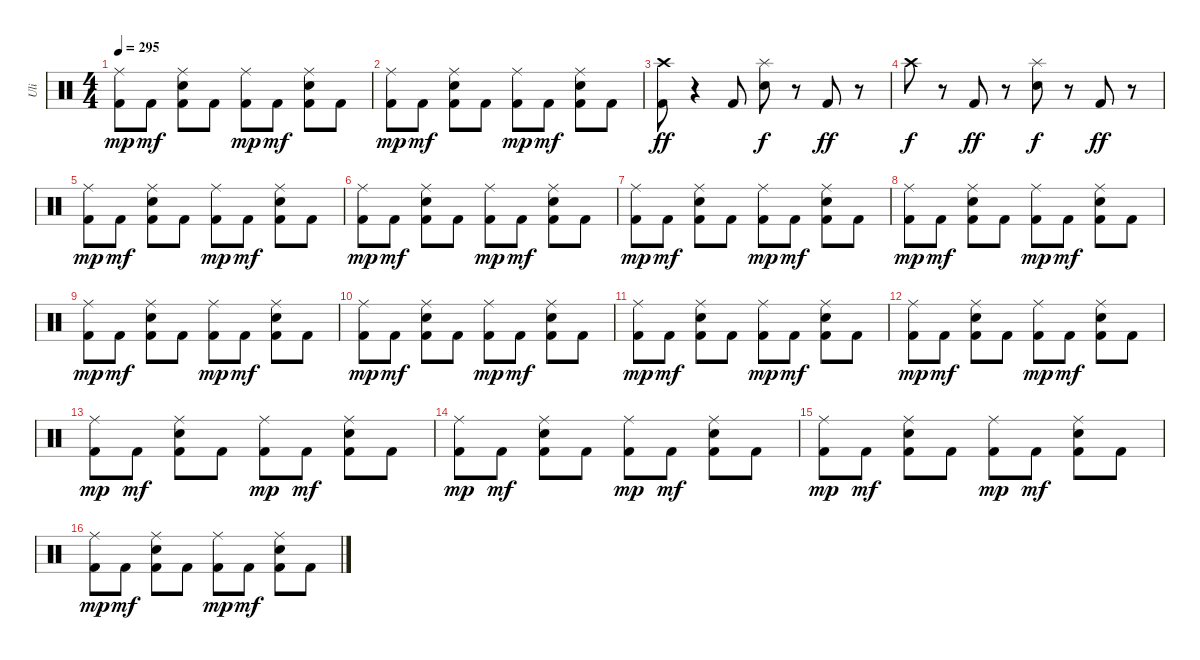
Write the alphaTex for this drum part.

\track ("Uli" "Uli") {instrument percussion}
\staff {score}
\articulation defaults
\ts (4 4)
\tempo 295
\clef neutral
\ks c
("Ride (middle)" "Kick (hit) 2").8{dy mp} "Kick (hit) 2".8{dy mf} ("Ride (middle)" "Electric Snare (hit)" "Kick (hit) 2").8 "Kick (hit) 2".8 ("Ride (middle)" "Kick (hit) 2").8{dy mp} "Kick (hit) 2".8{dy mf} ("Ride (middle)" "Electric Snare (hit)" "Kick (hit) 2").8 "Kick (hit) 2".8 |
("Ride (middle)" "Kick (hit) 2").8{dy mp} "Kick (hit) 2".8{dy mf} ("Ride (middle)" "Electric Snare (hit)" "Kick (hit) 2").8 "Kick (hit) 2".8 ("Ride (middle)" "Kick (hit) 2").8{dy mp} "Kick (hit) 2".8{dy mf} ("Ride (middle)" "Electric Snare (hit)" "Kick (hit) 2").8 "Kick (hit) 2".8 |
("Crash high (hit)" "Kick (hit) 2").8{dy ff} r.4 "Kick (hit) 2".8 ("Splash (hit)" "Electric Snare (hit)").8{dy f} r.8 "Kick (hit) 2".8{dy ff} r.8 |
"Crash high (hit)".8{dy f} r.8 "Kick (hit) 2".8{dy ff} r.8 ("Splash (hit)" "Electric Snare (hit)").8{dy f} r.8 "Kick (hit) 2".8{dy ff} r.8 |
("Ride (middle)" "Kick (hit) 2").8{dy mp} "Kick (hit) 2".8{dy mf} ("Ride (middle)" "Electric Snare (hit)" "Kick (hit) 2").8 "Kick (hit) 2".8 ("Ride (middle)" "Kick (hit) 2").8{dy mp} "Kick (hit) 2".8{dy mf} ("Ride (middle)" "Electric Snare (hit)" "Kick (hit) 2").8 "Kick (hit) 2".8 |
("Ride (middle)" "Kick (hit) 2").8{dy mp} "Kick (hit) 2".8{dy mf} ("Ride (middle)" "Electric Snare (hit)" "Kick (hit) 2").8 "Kick (hit) 2".8 ("Ride (middle)" "Kick (hit) 2").8{dy mp} "Kick (hit) 2".8{dy mf} ("Ride (middle)" "Electric Snare (hit)" "Kick (hit) 2").8 "Kick (hit) 2".8 |
("Ride (middle)" "Kick (hit) 2").8{dy mp} "Kick (hit) 2".8{dy mf} ("Ride (middle)" "Electric Snare (hit)" "Kick (hit) 2").8 "Kick (hit) 2".8 ("Ride (middle)" "Kick (hit) 2").8{dy mp} "Kick (hit) 2".8{dy mf} ("Ride (middle)" "Electric Snare (hit)" "Kick (hit) 2").8 "Kick (hit) 2".8 |
("Ride (middle)" "Kick (hit) 2").8{dy mp} "Kick (hit) 2".8{dy mf} ("Ride (middle)" "Electric Snare (hit)" "Kick (hit) 2").8 "Kick (hit) 2".8 ("Ride (middle)" "Kick (hit) 2").8{dy mp} "Kick (hit) 2".8{dy mf} ("Ride (middle)" "Electric Snare (hit)" "Kick (hit) 2").8 "Kick (hit) 2".8 |
("Ride (middle)" "Kick (hit) 2").8{dy mp} "Kick (hit) 2".8{dy mf} ("Ride (middle)" "Electric Snare (hit)" "Kick (hit) 2").8 "Kick (hit) 2".8 ("Ride (middle)" "Kick (hit) 2").8{dy mp} "Kick (hit) 2".8{dy mf} ("Ride (middle)" "Electric Snare (hit)" "Kick (hit) 2").8 "Kick (hit) 2".8 |
("Ride (middle)" "Kick (hit) 2").8{dy mp} "Kick (hit) 2".8{dy mf} ("Ride (middle)" "Electric Snare (hit)" "Kick (hit) 2").8 "Kick (hit) 2".8 ("Ride (middle)" "Kick (hit) 2").8{dy mp} "Kick (hit) 2".8{dy mf} ("Ride (middle)" "Electric Snare (hit)" "Kick (hit) 2").8 "Kick (hit) 2".8 |
("Ride (middle)" "Kick (hit) 2").8{dy mp} "Kick (hit) 2".8{dy mf} ("Ride (middle)" "Electric Snare (hit)" "Kick (hit) 2").8 "Kick (hit) 2".8 ("Ride (middle)" "Kick (hit) 2").8{dy mp} "Kick (hit) 2".8{dy mf} ("Ride (middle)" "Electric Snare (hit)" "Kick (hit) 2").8 "Kick (hit) 2".8 |
("Ride (middle)" "Kick (hit) 2").8{dy mp} "Kick (hit) 2".8{dy mf} ("Ride (middle)" "Electric Snare (hit)" "Kick (hit) 2").8 "Kick (hit) 2".8 ("Ride (middle)" "Kick (hit) 2").8{dy mp} "Kick (hit) 2".8{dy mf} ("Ride (middle)" "Electric Snare (hit)" "Kick (hit) 2").8 "Kick (hit) 2".8 |
("Ride (middle)" "Kick (hit) 2").8{dy mp} "Kick (hit) 2".8{dy mf} ("Ride (middle)" "Electric Snare (hit)" "Kick (hit) 2").8 "Kick (hit) 2".8 ("Ride (middle)" "Kick (hit) 2").8{dy mp} "Kick (hit) 2".8{dy mf} ("Ride (middle)" "Electric Snare (hit)" "Kick (hit) 2").8 "Kick (hit) 2".8 |
("Ride (middle)" "Kick (hit) 2").8{dy mp} "Kick (hit) 2".8{dy mf} ("Ride (middle)" "Electric Snare (hit)" "Kick (hit) 2").8 "Kick (hit) 2".8 ("Ride (middle)" "Kick (hit) 2").8{dy mp} "Kick (hit) 2".8{dy mf} ("Ride (middle)" "Electric Snare (hit)" "Kick (hit) 2").8 "Kick (hit) 2".8 |
("Ride (middle)" "Kick (hit) 2").8{dy mp} "Kick (hit) 2".8{dy mf} ("Ride (middle)" "Electric Snare (hit)" "Kick (hit) 2").8 "Kick (hit) 2".8 ("Ride (middle)" "Kick (hit) 2").8{dy mp} "Kick (hit) 2".8{dy mf} ("Ride (middle)" "Electric Snare (hit)" "Kick (hit) 2").8 "Kick (hit) 2".8 |
("Ride (middle)" "Kick (hit) 2").8{dy mp} "Kick (hit) 2".8{dy mf} ("Ride (middle)" "Electric Snare (hit)" "Kick (hit) 2").8 "Kick (hit) 2".8 ("Ride (middle)" "Kick (hit) 2").8{dy mp} "Kick (hit) 2".8{dy mf} ("Ride (middle)" "Electric Snare (hit)" "Kick (hit) 2").8 "Kick (hit) 2".8
